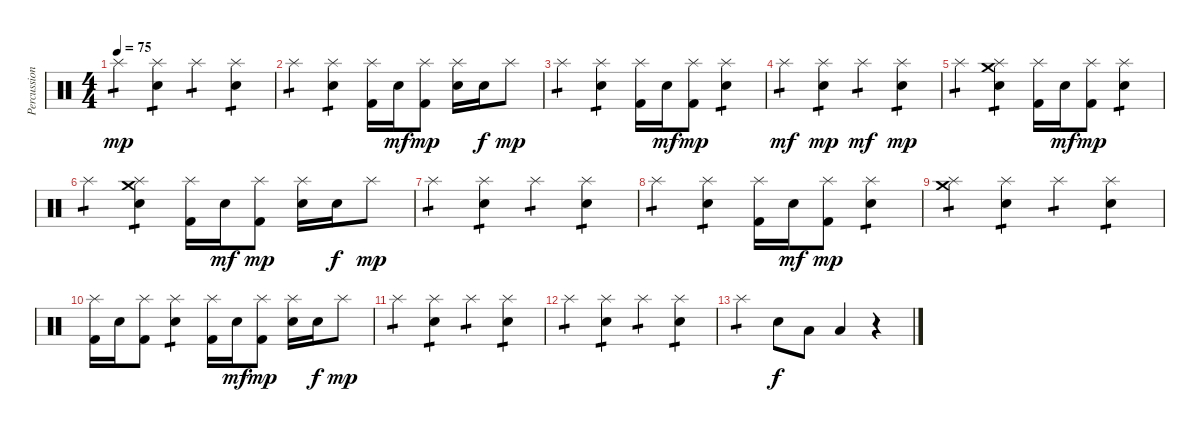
\track ("Percussion" "Percussion") {instrument percussion}
\staff {score}
\articulation defaults
\ts (4 4)
\tempo 75
\clef neutral
\ks c "Splash (hit)".4{tp 1 dy mp}
("Electric Snare (hit)" "Splash (hit)").4{tp 1} "Splash (hit)".4{tp 1} ("Electric Snare (hit)" "Splash (hit)").4{tp 1} |
"Splash (hit)".4{tp 1} ("Electric Snare (hit)" "Splash (hit)").4{tp 1} ("Kick (hit) 2" "Splash (hit)").16 "Electric Snare (hit)".16{dy mf} ("Kick (hit) 2" "Splash (hit)").8{dy mp} ("Electric Snare (hit)" "Splash (hit)").16 "Electric Snare (hit)".16{dy f} "Splash (hit)".8{dy mp} |
"Splash (hit)".4{tp 1} ("Electric Snare (hit)" "Splash (hit)").4{tp 1} ("Kick (hit) 2" "Splash (hit)").16 "Electric Snare (hit)".16{dy mf} ("Kick (hit) 2" "Splash (hit)").8{dy mp} ("Electric Snare (hit)" "Splash (hit)").4{tp 1} |
"Splash (hit)".4{tp 1 dy mf} ("Electric Snare (hit)" "Splash (hit)").4{tp 1 dy mp} "Splash (hit)".4{tp 1 dy mf} ("Electric Snare (hit)" "Splash (hit)").4{tp 1 dy mp} |
"Splash (hit)".4{tp 1} ("Crash medium (hit)" "Electric Snare (hit)" "Splash (hit)").4{tp 1} ("Kick (hit) 2" "Splash (hit)").16 "Electric Snare (hit)".16{dy mf} ("Kick (hit) 2" "Splash (hit)").8{dy mp} ("Electric Snare (hit)" "Splash (hit)").4{tp 1} |
"Splash (hit)".4{tp 1} ("Crash medium (hit)" "Electric Snare (hit)" "Splash (hit)").4{tp 1} ("Kick (hit) 2" "Splash (hit)").16 "Electric Snare (hit)".16{dy mf} ("Kick (hit) 2" "Splash (hit)").8{dy mp} ("Electric Snare (hit)" "Splash (hit)").16 "Electric Snare (hit)".16{dy f} "Splash (hit)".8{dy mp} |
"Splash (hit)".4{tp 1} ("Electric Snare (hit)" "Splash (hit)").4{tp 1} "Splash (hit)".4{tp 1} ("Electric Snare (hit)" "Splash (hit)").4{tp 1} |
"Splash (hit)".4{tp 1} ("Electric Snare (hit)" "Splash (hit)").4{tp 1} ("Kick (hit) 2" "Splash (hit)").16 "Electric Snare (hit)".16{dy mf} ("Kick (hit) 2" "Splash (hit)").8{dy mp} ("Electric Snare (hit)" "Splash (hit)").4{tp 1} |
("Crash medium (hit)" "Splash (hit)").4{tp 1} ("Electric Snare (hit)" "Splash (hit)").4{tp 1} "Splash (hit)".4{tp 1} ("Electric Snare (hit)" "Splash (hit)").4{tp 1} |
("Kick (hit) 2" "Splash (hit)").16 "Electric Snare (hit)".16 ("Kick (hit) 2" "Splash (hit)").8 ("Electric Snare (hit)" "Splash (hit)").4{tp 1} ("Kick (hit) 2" "Splash (hit)").16 "Electric Snare (hit)".16{dy mf} ("Kick (hit) 2" "Splash (hit)").8{dy mp} ("Electric Snare (hit)" "Splash (hit)").16 "Electric Snare (hit)".16{dy f} "Splash (hit)".8{dy mp} |
"Splash (hit)".4{tp 1} ("Electric Snare (hit)" "Splash (hit)").4{tp 1} "Splash (hit)".4{tp 1} ("Electric Snare (hit)" "Splash (hit)").4{tp 1} |
"Splash (hit)".4{tp 1} ("Electric Snare (hit)" "Splash (hit)").4{tp 1} "Splash (hit)".4{tp 1} ("Electric Snare (hit)" "Splash (hit)").4{tp 1} |
"Splash (hit)".4{tp 1} "Electric Snare (hit)".8{dy f} "Low Tom (hit)".8 "Low Floor Tom (hit)".4 r.4
